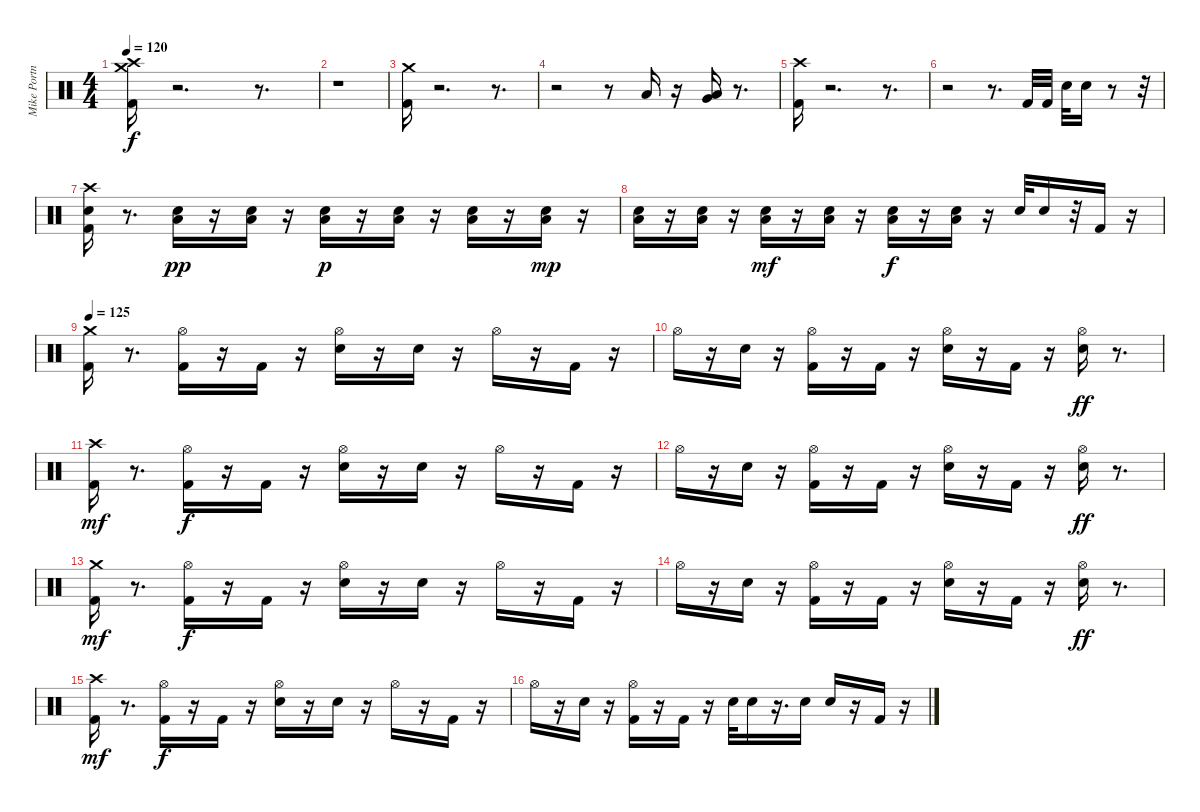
\track ("Mike Portnoy" "Mike Portn") {instrument percussion}
\staff {score}
\articulation defaults
\ts (4 4)
\tempo 120
\clef neutral
\ks c
("Crash medium (hit)" "Crash high (hit)" "Kick (hit) 2").16{dy f} r.2{d} r.8{d} |
r.1 |
("Crash medium (hit)" "Kick (hit) 2").16 r.2{d} r.8{d} |
r.2 r.8 "Low Floor Tom (hit)".16 r.16 ("Very Low Tom (hit)" "Low Floor Tom (hit)").16 r.8{d} |
("Crash high (hit)" "Kick (hit) 2").16 r.2{d} r.8{d} |
r.2 r.8{d} "Kick (hit) 2".32 "Kick (hit) 2".32 "Snare (hit) 2".32 "Snare (hit) 2".16 r.8 r.32 |
("Kick (hit) 2" "Crash high (hit)" "Snare (hit) 2").16 r.8{d} ("Low Floor Tom (hit)" "Snare (hit) 2").16{dy pp} r.16 ("Low Floor Tom (hit)" "Snare (hit) 2").16 r.16 ("Low Floor Tom (hit)" "Snare (hit) 2").16{dy p} r.16 ("Low Floor Tom (hit)" "Snare (hit) 2").16 r.16 ("Low Floor Tom (hit)" "Snare (hit) 2").16 r.16 ("Low Floor Tom (hit)" "Snare (hit) 2").16{dy mp} r.16 |
("Low Floor Tom (hit)" "Snare (hit) 2").16 r.16 ("Low Floor Tom (hit)" "Snare (hit) 2").16 r.16 ("Low Floor Tom (hit)" "Snare (hit) 2").16{dy mf} r.16 ("Low Floor Tom (hit)" "Snare (hit) 2").16 r.16 ("Low Floor Tom (hit)" "Snare (hit) 2").16{dy f} r.16 ("Low Floor Tom (hit)" "Snare (hit) 2").16 r.16 "Snare (hit) 2".32 "Snare (hit) 2".16 r.32 "Kick (hit) 2".16 r.16 |
\tempo 125
("Crash medium (hit)" "Kick (hit) 2").16 r.8{d} ("Hi-Hat (open)" "Kick (hit) 2").16 r.16 "Kick (hit) 2".16 r.16 ("Hi-Hat (open)" "Snare (hit) 2").16 r.16 "Snare (hit) 2".16 r.16 "Hi-Hat (open)".16 r.16 "Kick (hit) 2".16 r.16 |
"Hi-Hat (open)".16 r.16 "Snare (hit) 2".16 r.16 ("Hi-Hat (open)" "Kick (hit) 2").16 r.16 "Kick (hit) 2".16 r.16 ("Hi-Hat (open)" "Snare (hit) 2").16 r.16 "Kick (hit) 2".16 r.16 ("Hi-Hat (open)" "Snare (hit) 2").16{dy ff} r.8{d} |
("Crash high (hit)" "Kick (hit) 2").16{dy mf} r.8{d} ("Hi-Hat (open)" "Kick (hit) 2").16{dy f} r.16 "Kick (hit) 2".16 r.16 ("Hi-Hat (open)" "Snare (hit) 2").16 r.16 "Snare (hit) 2".16 r.16 "Hi-Hat (open)".16 r.16 "Kick (hit) 2".16 r.16 |
"Hi-Hat (open)".16 r.16 "Snare (hit) 2".16 r.16 ("Hi-Hat (open)" "Kick (hit) 2").16 r.16 "Kick (hit) 2".16 r.16 ("Hi-Hat (open)" "Snare (hit) 2").16 r.16 "Kick (hit) 2".16 r.16 ("Hi-Hat (open)" "Snare (hit) 2").16{dy ff} r.8{d} |
("Crash medium (hit)" "Kick (hit) 2").16{dy mf} r.8{d} ("Hi-Hat (open)" "Kick (hit) 2").16{dy f} r.16 "Kick (hit) 2".16 r.16 ("Hi-Hat (open)" "Snare (hit) 2").16 r.16 "Snare (hit) 2".16 r.16 "Hi-Hat (open)".16 r.16 "Kick (hit) 2".16 r.16 |
"Hi-Hat (open)".16 r.16 "Snare (hit) 2".16 r.16 ("Hi-Hat (open)" "Kick (hit) 2").16 r.16 "Kick (hit) 2".16 r.16 ("Hi-Hat (open)" "Snare (hit) 2").16 r.16 "Kick (hit) 2".16 r.16 ("Hi-Hat (open)" "Snare (hit) 2").16{dy ff} r.8{d} |
("Crash high (hit)" "Kick (hit) 2").16{dy mf} r.8{d} ("Hi-Hat (open)" "Kick (hit) 2").16{dy f} r.16 "Kick (hit) 2".16 r.16 ("Hi-Hat (open)" "Snare (hit) 2").16 r.16 "Snare (hit) 2".16 r.16 "Hi-Hat (open)".16 r.16 "Kick (hit) 2".16 r.16 |
"Hi-Hat (open)".16 r.16 "Snare (hit) 2".16 r.16 ("Hi-Hat (open)" "Kick (hit) 2").16 r.16 "Kick (hit) 2".16 r.16 "Snare (hit) 2".32 "Snare (hit) 2".16 r.16{d} "Snare (hit) 2".16 "Snare (hit) 2".16 r.16 "Kick (hit) 2".16 r.16
